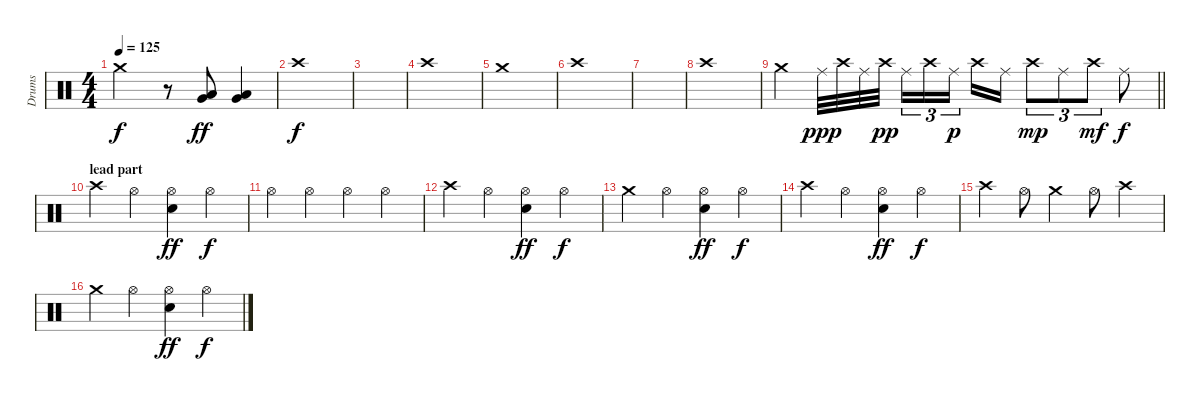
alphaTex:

\track ("Drums" "Drums") {instrument percussion}
\staff {score}
\articulation defaults
\ts (4 4)
\tempo 125
\clef neutral
\ks c "Crash medium (hit)".2{dy f}
r.8 ("Low Tom (hit)" "Very Low Tom (hit)").8{dy ff} ("Very Low Tom (hit)" "Low Floor Tom (hit)").4 |
"Crash high (hit)".1{dy f} |
|
"Crash high (hit)".1 |
"Crash medium (hit)".1 |
"Crash high (hit)".1 |
|
"Crash high (hit)".1 |
\barLineRight lightlight "Crash medium (hit)".4 "Ride (middle)".32{dy ppp} "Crash high (hit)".32 "Ride (middle)".32 "Crash high (hit)".32{dy pp beam splitsecondary} "Ride (middle)".16{tu (3 2)} "Crash high (hit)".16{tu (3 2)} "Ride (middle)".16{tu (3 2) dy p} "Crash high (hit)".16 "Ride (middle)".16 "Crash high (hit)".8{tu (3 2) dy mp} "Ride (middle)".8{tu (3 2)} "Crash high (hit)".8{tu (3 2) dy mf} "Ride (middle)".8{dy f}
|
\section ("" "lead part")
"Crash high (hit)".4 "Hi-Hat (open)".4 ("Hi-Hat (open)" "Snare (hit) 2").4{dy ff} "Hi-Hat (open)".4{dy f} |
"Hi-Hat (open)".4 "Hi-Hat (open)".4 "Hi-Hat (open)".4 "Hi-Hat (open)".4 |
"Crash high (hit)".4 "Hi-Hat (open)".4 ("Hi-Hat (open)" "Snare (hit) 2").4{dy ff} "Hi-Hat (open)".4{dy f} |
"Crash medium (hit)".4 "Hi-Hat (open)".4 ("Hi-Hat (open)" "Snare (hit) 2").4{dy ff} "Hi-Hat (open)".4{dy f} |
"Crash high (hit)".4 "Hi-Hat (open)".4 ("Hi-Hat (open)" "Snare (hit) 2").4{dy ff} "Hi-Hat (open)".4{dy f} |
"Crash high (hit)".4 "Hi-Hat (open)".8 "Crash medium (hit)".4 "Hi-Hat (open)".8 "Crash high (hit)".4 |
"Crash medium (hit)".4 "Hi-Hat (open)".4 ("Hi-Hat (open)" "Snare (hit) 2").4{dy ff} "Hi-Hat (open)".4{dy f}
